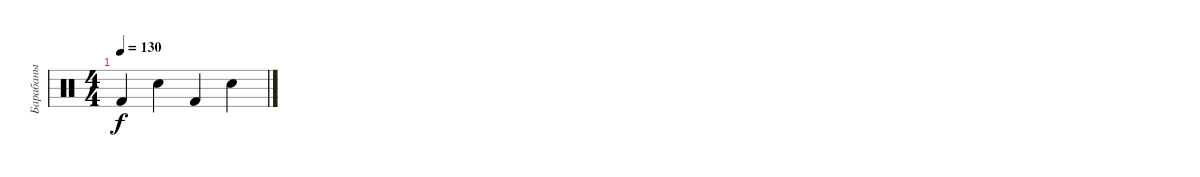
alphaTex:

\track ("Барабаны" "Барабаны") {instrument percussion}
\staff {score}
\articulation defaults
\ts (4 4)
\tempo 130
\clef neutral
\ks c "Kick (hit) 2".4{dy f} "Snare (hit) 2".4 "Kick (hit) 2".4 "Snare (hit) 2".4
